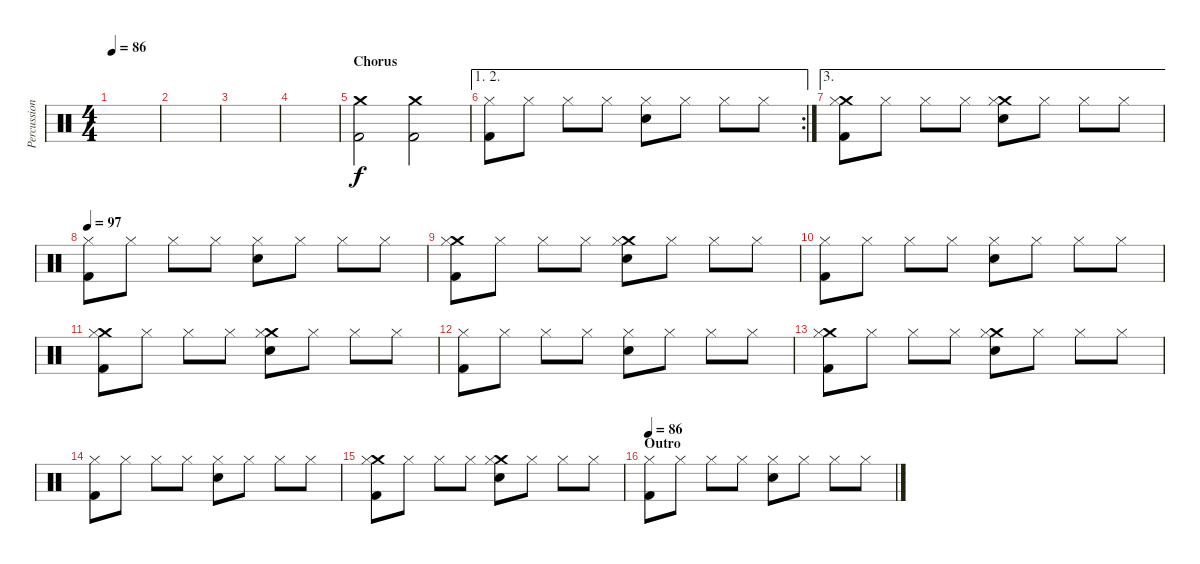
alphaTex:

\track ("Percussion" "Percussion") {instrument percussion}
\staff {score}
\articulation defaults
\ts (4 4)
\tempo 86
\clef neutral
\ks c
|
|
|
\section ("" "")
|
\section ("" "Chorus")
("Crash medium (hit)" "Kick (hit) 2").2 ("Crash medium (hit)" "Kick (hit) 2").2 |
\ae (1 2)
\rc 2
("Hi-Hat (closed)" "Kick (hit) 2").8 "Hi-Hat (closed)".8 "Hi-Hat (closed)".8 "Hi-Hat (closed)".8 ("Hi-Hat (closed)" "Electric Snare (hit)").8 "Hi-Hat (closed)".8 "Hi-Hat (closed)".8 "Hi-Hat (closed)".8 |
\ae 3
("Crash medium (hit)" "Hi-Hat (closed)" "Kick (hit) 2").8 "Hi-Hat (closed)".8 "Hi-Hat (closed)".8 "Hi-Hat (closed)".8 ("Crash medium (hit)" "Hi-Hat (closed)" "Electric Snare (hit)").8 "Hi-Hat (closed)".8 "Hi-Hat (closed)".8 "Hi-Hat (closed)".8 |
\tempo 97
("Hi-Hat (closed)" "Kick (hit) 2").8 "Hi-Hat (closed)".8 "Hi-Hat (closed)".8 "Hi-Hat (closed)".8 ("Hi-Hat (closed)" "Electric Snare (hit)").8 "Hi-Hat (closed)".8 "Hi-Hat (closed)".8 "Hi-Hat (closed)".8 |
("Crash medium (hit)" "Hi-Hat (closed)" "Kick (hit) 2").8 "Hi-Hat (closed)".8 "Hi-Hat (closed)".8 "Hi-Hat (closed)".8 ("Crash medium (hit)" "Hi-Hat (closed)" "Electric Snare (hit)").8 "Hi-Hat (closed)".8 "Hi-Hat (closed)".8 "Hi-Hat (closed)".8 |
("Hi-Hat (closed)" "Kick (hit) 2").8 "Hi-Hat (closed)".8 "Hi-Hat (closed)".8 "Hi-Hat (closed)".8 ("Hi-Hat (closed)" "Electric Snare (hit)").8 "Hi-Hat (closed)".8 "Hi-Hat (closed)".8 "Hi-Hat (closed)".8 |
("Crash medium (hit)" "Hi-Hat (closed)" "Kick (hit) 2").8 "Hi-Hat (closed)".8 "Hi-Hat (closed)".8 "Hi-Hat (closed)".8 ("Crash medium (hit)" "Hi-Hat (closed)" "Electric Snare (hit)").8 "Hi-Hat (closed)".8 "Hi-Hat (closed)".8 "Hi-Hat (closed)".8 |
("Hi-Hat (closed)" "Kick (hit) 2").8 "Hi-Hat (closed)".8 "Hi-Hat (closed)".8 "Hi-Hat (closed)".8 ("Hi-Hat (closed)" "Electric Snare (hit)").8 "Hi-Hat (closed)".8 "Hi-Hat (closed)".8 "Hi-Hat (closed)".8 |
("Crash medium (hit)" "Hi-Hat (closed)" "Kick (hit) 2").8 "Hi-Hat (closed)".8 "Hi-Hat (closed)".8 "Hi-Hat (closed)".8 ("Crash medium (hit)" "Hi-Hat (closed)" "Electric Snare (hit)").8 "Hi-Hat (closed)".8 "Hi-Hat (closed)".8 "Hi-Hat (closed)".8 |
("Hi-Hat (closed)" "Kick (hit) 2").8 "Hi-Hat (closed)".8 "Hi-Hat (closed)".8 "Hi-Hat (closed)".8 ("Hi-Hat (closed)" "Electric Snare (hit)").8 "Hi-Hat (closed)".8 "Hi-Hat (closed)".8 "Hi-Hat (closed)".8 |
("Crash medium (hit)" "Hi-Hat (closed)" "Kick (hit) 2").8 "Hi-Hat (closed)".8 "Hi-Hat (closed)".8 "Hi-Hat (closed)".8 ("Crash medium (hit)" "Hi-Hat (closed)" "Electric Snare (hit)").8 "Hi-Hat (closed)".8 "Hi-Hat (closed)".8 "Hi-Hat (closed)".8 |
\section ("" "Outro")
\tempo 86
("Hi-Hat (closed)" "Kick (hit) 2").8 "Hi-Hat (closed)".8 "Hi-Hat (closed)".8 "Hi-Hat (closed)".8 ("Hi-Hat (closed)" "Electric Snare (hit)").8 "Hi-Hat (closed)".8 "Hi-Hat (closed)".8 "Hi-Hat (closed)".8
